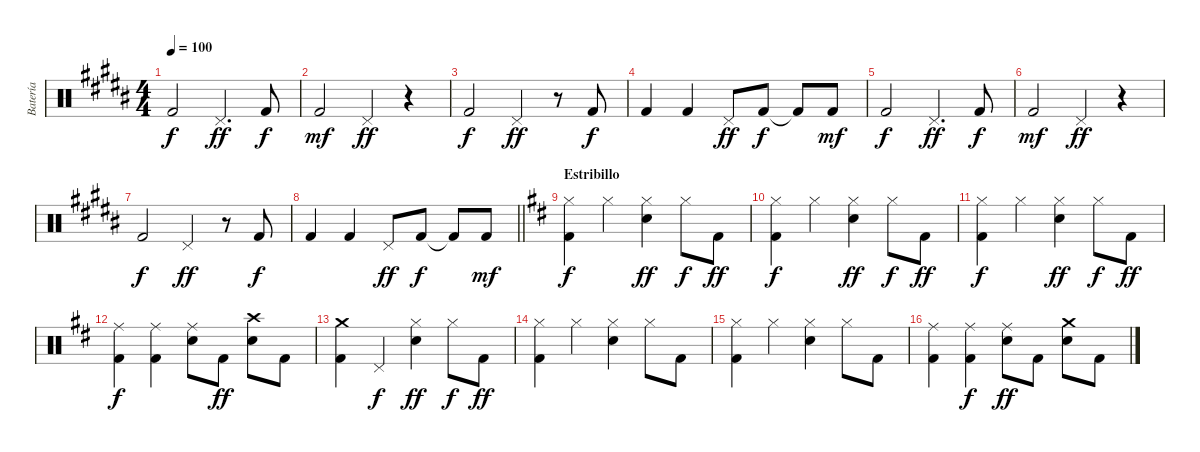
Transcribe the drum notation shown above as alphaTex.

\track ("Batería" "Batería") {instrument percussion}
\staff {score}
\articulation defaults
\ts (4 4)
\tempo 100
\clef neutral
\ks g#minor "Kick (hit) 2".2{dy f} "Pedal Hi-Hat (hit)".4{d dy ff} "Kick (hit) 2".8{dy f}
|
"Kick (hit) 2".2{dy mf} "Pedal Hi-Hat (hit)".4{dy ff} r.4 |
"Kick (hit) 2".2{dy f} "Pedal Hi-Hat (hit)".4{dy ff} r.8 "Kick (hit) 2".8{dy f} |
"Kick (hit) 2".4 "Kick (hit) 2".4 "Pedal Hi-Hat (hit)".8{dy ff} "Kick (hit) 2".8{dy f} "Kick (hit) 2"{t}.8 "Kick (hit) 2".8{dy mf} |
"Kick (hit) 2".2{dy f} "Pedal Hi-Hat (hit)".4{d dy ff} "Kick (hit) 2".8{dy f} |
"Kick (hit) 2".2{dy mf} "Pedal Hi-Hat (hit)".4{dy ff} r.4 |
"Kick (hit) 2".2{dy f} "Pedal Hi-Hat (hit)".4{dy ff} r.8 "Kick (hit) 2".8{dy f} |
\barLineRight lightlight "Kick (hit) 2".4 "Kick (hit) 2".4 "Pedal Hi-Hat (hit)".8{dy ff} "Kick (hit) 2".8{dy f} "Kick (hit) 2"{t}.8 "Kick (hit) 2".8{dy mf}
|
\section ("" "Estribillo")
\ks bminor
("Hi-Hat (closed)" "Kick (hit) 2").4{dy f} "Hi-Hat (closed)".4 ("Hi-Hat (closed)" "Electric Snare (hit)").4{dy ff} "Hi-Hat (closed)".8{dy f} "Kick (hit) 2".8{dy ff} |
("Hi-Hat (closed)" "Kick (hit) 2").4{dy f} "Hi-Hat (closed)".4 ("Hi-Hat (closed)" "Electric Snare (hit)").4{dy ff} "Hi-Hat (closed)".8{dy f} "Kick (hit) 2".8{dy ff} |
("Hi-Hat (closed)" "Kick (hit) 2").4{dy f} "Hi-Hat (closed)".4 ("Hi-Hat (closed)" "Electric Snare (hit)").4{dy ff} "Hi-Hat (closed)".8{dy f} "Kick (hit) 2".8{dy ff} |
("Ride (middle)" "Kick (hit) 2").4{dy f} ("Ride (middle)" "Kick (hit) 2").4 ("Ride (middle)" "Electric Snare (hit)").8 "Kick (hit) 2".8{dy ff} ("Crash high (hit)" "Electric Snare (hit)").8 "Kick (hit) 2".8 |
("Crash medium (hit)" "Kick (hit) 2").4 "Pedal Hi-Hat (hit)".4{dy f} ("Hi-Hat (closed)" "Electric Snare (hit)").4{dy ff} "Hi-Hat (closed)".8{dy f} "Kick (hit) 2".8{dy ff} |
("Hi-Hat (closed)" "Kick (hit) 2").4 "Hi-Hat (closed)".4 ("Hi-Hat (closed)" "Electric Snare (hit)").4 "Hi-Hat (closed)".8 "Kick (hit) 2".8 |
("Hi-Hat (closed)" "Kick (hit) 2").4 "Hi-Hat (closed)".4 ("Hi-Hat (closed)" "Electric Snare (hit)").4 "Hi-Hat (closed)".8 "Kick (hit) 2".8 |
("Ride (middle)" "Kick (hit) 2").4 ("Ride (middle)" "Kick (hit) 2").4{dy f} ("Electric Snare (hit)" "Ride (middle)").8{dy ff} "Kick (hit) 2".8 ("Crash medium (hit)" "Electric Snare (hit)").8 "Kick (hit) 2".8
